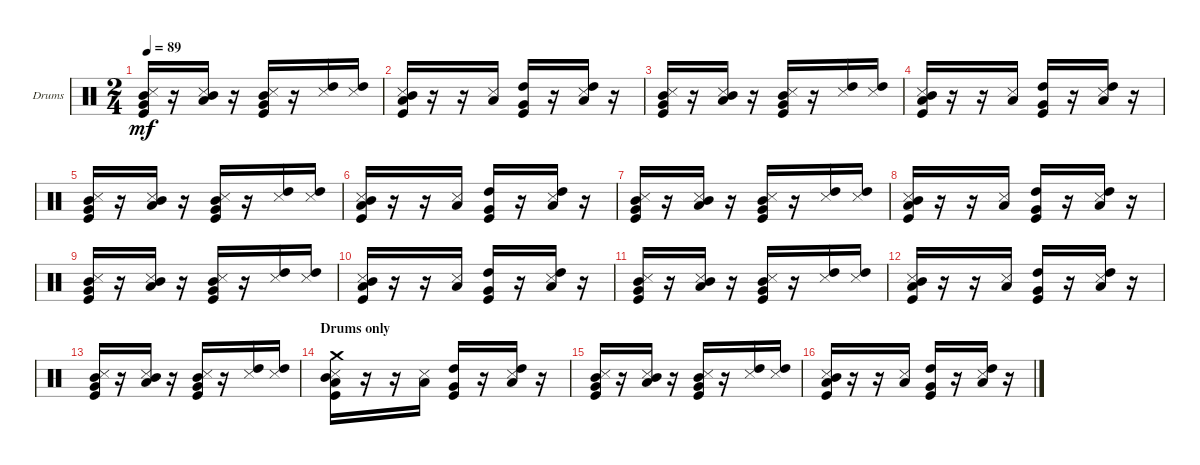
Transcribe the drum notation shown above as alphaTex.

\bracketExtendMode groupsimilarinstruments
\firstSystemTrackNameOrientation horizontal
\otherSystemsTrackNameOrientation horizontal
\track ("Ryo" "Drums") {instrument percussion}
\staff {score}
\articulation defaults
\ts (2 4)
\tempo 89
\clef neutral
\ks c
("Kick (hit)" "Very Low Tom (hit)" "Snare (side stick) 3" "Mid Tom (hit)").16{dy mf} r.16 ("Mid Tom (hit)" "Low Tom (hit)" "Snare (side stick) 3").16 r.16 ("Kick (hit)" "Very Low Tom (hit)" "Snare (side stick) 3" "Mid Tom (hit)").16 r.16 ("High Tom (hit)" "Snare (side stick) 3").16 ("High Tom (hit)" "Snare (side stick) 3").16 |
("Kick (hit)" "Low Tom (hit)" "Snare (side stick) 3" "Mid Tom (hit)").16 r.16 r.16 ("Low Tom (hit)" "Snare (side stick) 3").16 ("Kick (hit)" "Very Low Tom (hit)" "High Tom (hit)").16 r.16 ("Low Tom (hit)" "High Tom (hit)" "Snare (side stick) 3").16 r.16 |
("Kick (hit)" "Very Low Tom (hit)" "Snare (side stick) 3" "Mid Tom (hit)").16 r.16 ("Mid Tom (hit)" "Low Tom (hit)" "Snare (side stick) 3").16 r.16 ("Kick (hit)" "Very Low Tom (hit)" "Snare (side stick) 3" "Mid Tom (hit)").16 r.16 ("High Tom (hit)" "Snare (side stick) 3").16 ("High Tom (hit)" "Snare (side stick) 3").16 |
("Kick (hit)" "Low Tom (hit)" "Snare (side stick) 3" "Mid Tom (hit)").16 r.16 r.16 ("Low Tom (hit)" "Snare (side stick) 3").16 ("Kick (hit)" "Very Low Tom (hit)" "High Tom (hit)").16 r.16 ("Low Tom (hit)" "High Tom (hit)" "Snare (side stick) 3").16 r.16 |
("Kick (hit)" "Very Low Tom (hit)" "Snare (side stick) 3" "Mid Tom (hit)").16 r.16 ("Mid Tom (hit)" "Low Tom (hit)" "Snare (side stick) 3").16 r.16 ("Kick (hit)" "Very Low Tom (hit)" "Snare (side stick) 3" "Mid Tom (hit)").16 r.16 ("High Tom (hit)" "Snare (side stick) 3").16 ("High Tom (hit)" "Snare (side stick) 3").16 |
("Kick (hit)" "Low Tom (hit)" "Snare (side stick) 3" "Mid Tom (hit)").16 r.16 r.16 ("Low Tom (hit)" "Snare (side stick) 3").16 ("Kick (hit)" "Very Low Tom (hit)" "High Tom (hit)").16 r.16 ("Low Tom (hit)" "High Tom (hit)" "Snare (side stick) 3").16 r.16 |
("Kick (hit)" "Very Low Tom (hit)" "Snare (side stick) 3" "Mid Tom (hit)").16 r.16 ("Mid Tom (hit)" "Low Tom (hit)" "Snare (side stick) 3").16 r.16 ("Kick (hit)" "Very Low Tom (hit)" "Snare (side stick) 3" "Mid Tom (hit)").16 r.16 ("High Tom (hit)" "Snare (side stick) 3").16 ("High Tom (hit)" "Snare (side stick) 3").16 |
("Kick (hit)" "Low Tom (hit)" "Snare (side stick) 3" "Mid Tom (hit)").16 r.16 r.16 ("Low Tom (hit)" "Snare (side stick) 3").16 ("Kick (hit)" "Very Low Tom (hit)" "High Tom (hit)").16 r.16 ("Low Tom (hit)" "High Tom (hit)" "Snare (side stick) 3").16 r.16 |
("Kick (hit)" "Very Low Tom (hit)" "Snare (side stick) 3" "Mid Tom (hit)").16 r.16 ("Mid Tom (hit)" "Low Tom (hit)" "Snare (side stick) 3").16 r.16 ("Kick (hit)" "Very Low Tom (hit)" "Snare (side stick) 3" "Mid Tom (hit)").16 r.16 ("High Tom (hit)" "Snare (side stick) 3").16 ("High Tom (hit)" "Snare (side stick) 3").16 |
("Kick (hit)" "Low Tom (hit)" "Snare (side stick) 3" "Mid Tom (hit)").16 r.16 r.16 ("Low Tom (hit)" "Snare (side stick) 3").16 ("Kick (hit)" "Very Low Tom (hit)" "High Tom (hit)").16 r.16 ("Low Tom (hit)" "High Tom (hit)" "Snare (side stick) 3").16 r.16 |
("Kick (hit)" "Very Low Tom (hit)" "Snare (side stick) 3" "Mid Tom (hit)").16 r.16 ("Mid Tom (hit)" "Low Tom (hit)" "Snare (side stick) 3").16 r.16 ("Kick (hit)" "Very Low Tom (hit)" "Snare (side stick) 3" "Mid Tom (hit)").16 r.16 ("High Tom (hit)" "Snare (side stick) 3").16 ("High Tom (hit)" "Snare (side stick) 3").16 |
("Kick (hit)" "Low Tom (hit)" "Snare (side stick) 3" "Mid Tom (hit)").16 r.16 r.16 ("Low Tom (hit)" "Snare (side stick) 3").16 ("Kick (hit)" "Very Low Tom (hit)" "High Tom (hit)").16 r.16 ("Low Tom (hit)" "High Tom (hit)" "Snare (side stick) 3").16 r.16 |
("Kick (hit)" "Very Low Tom (hit)" "Snare (side stick) 3" "Mid Tom (hit)").16 r.16 ("Mid Tom (hit)" "Low Tom (hit)" "Snare (side stick) 3").16 r.16 ("Kick (hit)" "Very Low Tom (hit)" "Snare (side stick) 3" "Mid Tom (hit)").16 r.16 ("High Tom (hit)" "Snare (side stick) 3").16 ("High Tom (hit)" "Snare (side stick) 3").16 |
\section ("" "Drums only")
("Kick (hit)" "Low Tom (hit)" "Snare (side stick) 3" "Mid Tom (hit)" "Crash medium (hit)").16 r.16 r.16 ("Low Tom (hit)" "Snare (side stick) 3").16 ("Kick (hit)" "Very Low Tom (hit)" "High Tom (hit)").16 r.16 ("Low Tom (hit)" "High Tom (hit)" "Snare (side stick) 3").16 r.16 |
("Kick (hit)" "Very Low Tom (hit)" "Snare (side stick) 3" "Mid Tom (hit)").16 r.16 ("Mid Tom (hit)" "Low Tom (hit)" "Snare (side stick) 3").16 r.16 ("Kick (hit)" "Very Low Tom (hit)" "Snare (side stick) 3" "Mid Tom (hit)").16 r.16 ("High Tom (hit)" "Snare (side stick) 3").16 ("High Tom (hit)" "Snare (side stick) 3").16 |
("Kick (hit)" "Low Tom (hit)" "Snare (side stick) 3" "Mid Tom (hit)").16 r.16 r.16 ("Low Tom (hit)" "Snare (side stick) 3").16 ("Kick (hit)" "Very Low Tom (hit)" "High Tom (hit)").16 r.16 ("Low Tom (hit)" "High Tom (hit)" "Snare (side stick) 3").16 r.16
